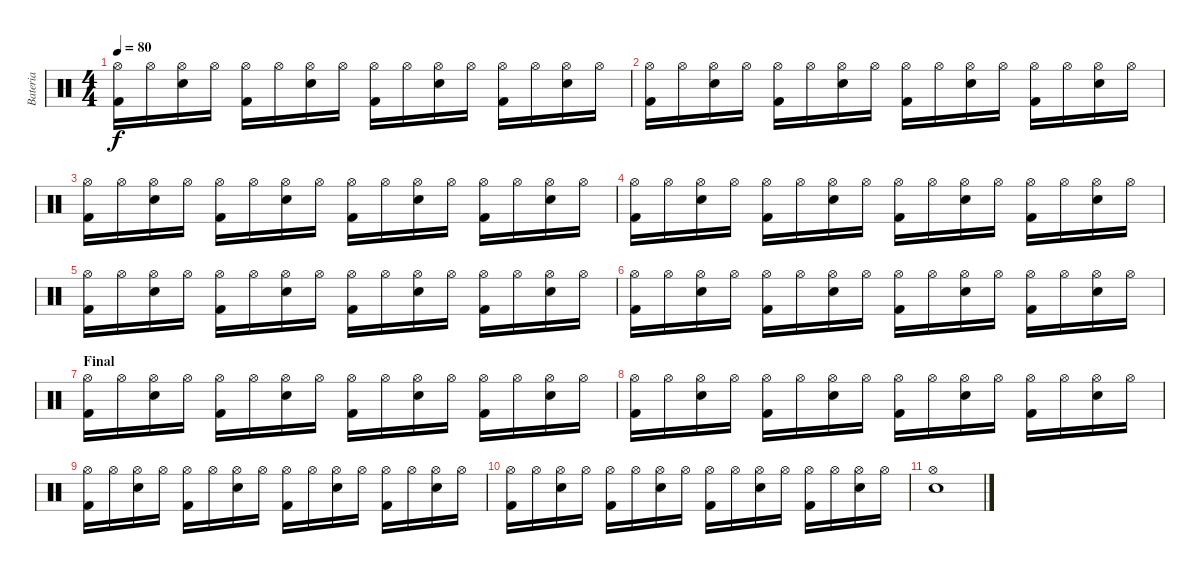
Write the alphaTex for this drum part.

\track ("Bateria" "Bateria") {instrument percussion}
\staff {score}
\articulation defaults
\ts (4 4)
\tempo 80
\clef neutral
\ks c
("Hi-Hat (open)" "Kick (hit) 2").16{dy f} "Hi-Hat (open)".16 ("Hi-Hat (open)" "Electric Snare (hit)").16 "Hi-Hat (open)".16 ("Hi-Hat (open)" "Kick (hit) 2").16 "Hi-Hat (open)".16 ("Hi-Hat (open)" "Electric Snare (hit)").16 "Hi-Hat (open)".16 ("Hi-Hat (open)" "Kick (hit) 2").16 "Hi-Hat (open)".16 ("Hi-Hat (open)" "Electric Snare (hit)").16 "Hi-Hat (open)".16 ("Hi-Hat (open)" "Kick (hit) 2").16 "Hi-Hat (open)".16 ("Hi-Hat (open)" "Electric Snare (hit)").16 "Hi-Hat (open)".16 |
("Hi-Hat (open)" "Kick (hit) 2").16 "Hi-Hat (open)".16 ("Hi-Hat (open)" "Electric Snare (hit)").16 "Hi-Hat (open)".16 ("Hi-Hat (open)" "Kick (hit) 2").16 "Hi-Hat (open)".16 ("Hi-Hat (open)" "Electric Snare (hit)").16 "Hi-Hat (open)".16 ("Hi-Hat (open)" "Kick (hit) 2").16 "Hi-Hat (open)".16 ("Hi-Hat (open)" "Electric Snare (hit)").16 "Hi-Hat (open)".16 ("Hi-Hat (open)" "Kick (hit) 2").16 "Hi-Hat (open)".16 ("Hi-Hat (open)" "Electric Snare (hit)").16 "Hi-Hat (open)".16 |
("Hi-Hat (open)" "Kick (hit) 2").16 "Hi-Hat (open)".16 ("Hi-Hat (open)" "Electric Snare (hit)").16 "Hi-Hat (open)".16 ("Hi-Hat (open)" "Kick (hit) 2").16 "Hi-Hat (open)".16 ("Hi-Hat (open)" "Electric Snare (hit)").16 "Hi-Hat (open)".16 ("Hi-Hat (open)" "Kick (hit) 2").16 "Hi-Hat (open)".16 ("Hi-Hat (open)" "Electric Snare (hit)").16 "Hi-Hat (open)".16 ("Hi-Hat (open)" "Kick (hit) 2").16 "Hi-Hat (open)".16 ("Hi-Hat (open)" "Electric Snare (hit)").16 "Hi-Hat (open)".16 |
("Hi-Hat (open)" "Kick (hit) 2").16 "Hi-Hat (open)".16 ("Hi-Hat (open)" "Electric Snare (hit)").16 "Hi-Hat (open)".16 ("Hi-Hat (open)" "Kick (hit) 2").16 "Hi-Hat (open)".16 ("Hi-Hat (open)" "Electric Snare (hit)").16 "Hi-Hat (open)".16 ("Hi-Hat (open)" "Kick (hit) 2").16 "Hi-Hat (open)".16 ("Hi-Hat (open)" "Electric Snare (hit)").16 "Hi-Hat (open)".16 ("Hi-Hat (open)" "Kick (hit) 2").16 "Hi-Hat (open)".16 ("Hi-Hat (open)" "Electric Snare (hit)").16 "Hi-Hat (open)".16 |
("Hi-Hat (open)" "Kick (hit) 2").16 "Hi-Hat (open)".16 ("Hi-Hat (open)" "Electric Snare (hit)").16 "Hi-Hat (open)".16 ("Hi-Hat (open)" "Kick (hit) 2").16 "Hi-Hat (open)".16 ("Hi-Hat (open)" "Electric Snare (hit)").16 "Hi-Hat (open)".16 ("Hi-Hat (open)" "Kick (hit) 2").16 "Hi-Hat (open)".16 ("Hi-Hat (open)" "Electric Snare (hit)").16 "Hi-Hat (open)".16 ("Hi-Hat (open)" "Kick (hit) 2").16 "Hi-Hat (open)".16 ("Hi-Hat (open)" "Electric Snare (hit)").16 "Hi-Hat (open)".16 |
("Hi-Hat (open)" "Kick (hit) 2").16 "Hi-Hat (open)".16 ("Hi-Hat (open)" "Electric Snare (hit)").16 "Hi-Hat (open)".16 ("Hi-Hat (open)" "Kick (hit) 2").16 "Hi-Hat (open)".16 ("Hi-Hat (open)" "Electric Snare (hit)").16 "Hi-Hat (open)".16 ("Hi-Hat (open)" "Kick (hit) 2").16 "Hi-Hat (open)".16 ("Hi-Hat (open)" "Electric Snare (hit)").16 "Hi-Hat (open)".16 ("Hi-Hat (open)" "Kick (hit) 2").16 "Hi-Hat (open)".16 ("Hi-Hat (open)" "Electric Snare (hit)").16 "Hi-Hat (open)".16 |
\section ("" "Final")
("Hi-Hat (open)" "Kick (hit) 2").16 "Hi-Hat (open)".16 ("Hi-Hat (open)" "Electric Snare (hit)").16 "Hi-Hat (open)".16 ("Hi-Hat (open)" "Kick (hit) 2").16 "Hi-Hat (open)".16 ("Hi-Hat (open)" "Electric Snare (hit)").16 "Hi-Hat (open)".16 ("Hi-Hat (open)" "Kick (hit) 2").16 "Hi-Hat (open)".16 ("Hi-Hat (open)" "Electric Snare (hit)").16 "Hi-Hat (open)".16 ("Hi-Hat (open)" "Kick (hit) 2").16 "Hi-Hat (open)".16 ("Hi-Hat (open)" "Electric Snare (hit)").16 "Hi-Hat (open)".16 |
("Hi-Hat (open)" "Kick (hit) 2").16 "Hi-Hat (open)".16 ("Hi-Hat (open)" "Electric Snare (hit)").16 "Hi-Hat (open)".16 ("Hi-Hat (open)" "Kick (hit) 2").16 "Hi-Hat (open)".16 ("Hi-Hat (open)" "Electric Snare (hit)").16 "Hi-Hat (open)".16 ("Hi-Hat (open)" "Kick (hit) 2").16 "Hi-Hat (open)".16 ("Hi-Hat (open)" "Electric Snare (hit)").16 "Hi-Hat (open)".16 ("Hi-Hat (open)" "Kick (hit) 2").16 "Hi-Hat (open)".16 ("Hi-Hat (open)" "Electric Snare (hit)").16 "Hi-Hat (open)".16 |
("Hi-Hat (open)" "Kick (hit) 2").16 "Hi-Hat (open)".16 ("Hi-Hat (open)" "Electric Snare (hit)").16 "Hi-Hat (open)".16 ("Hi-Hat (open)" "Kick (hit) 2").16 "Hi-Hat (open)".16 ("Hi-Hat (open)" "Electric Snare (hit)").16 "Hi-Hat (open)".16 ("Hi-Hat (open)" "Kick (hit) 2").16 "Hi-Hat (open)".16 ("Hi-Hat (open)" "Electric Snare (hit)").16 "Hi-Hat (open)".16 ("Hi-Hat (open)" "Kick (hit) 2").16 "Hi-Hat (open)".16 ("Hi-Hat (open)" "Electric Snare (hit)").16 "Hi-Hat (open)".16 |
("Hi-Hat (open)" "Kick (hit) 2").16 "Hi-Hat (open)".16 ("Hi-Hat (open)" "Electric Snare (hit)").16 "Hi-Hat (open)".16 ("Hi-Hat (open)" "Kick (hit) 2").16 "Hi-Hat (open)".16 ("Hi-Hat (open)" "Electric Snare (hit)").16 "Hi-Hat (open)".16 ("Hi-Hat (open)" "Kick (hit) 2").16 "Hi-Hat (open)".16 ("Hi-Hat (open)" "Electric Snare (hit)").16 "Hi-Hat (open)".16 ("Hi-Hat (open)" "Kick (hit) 2").16 "Hi-Hat (open)".16 ("Hi-Hat (open)" "Electric Snare (hit)").16 "Hi-Hat (open)".16 |
("Hi-Hat (open)" "Electric Snare (hit)").1
